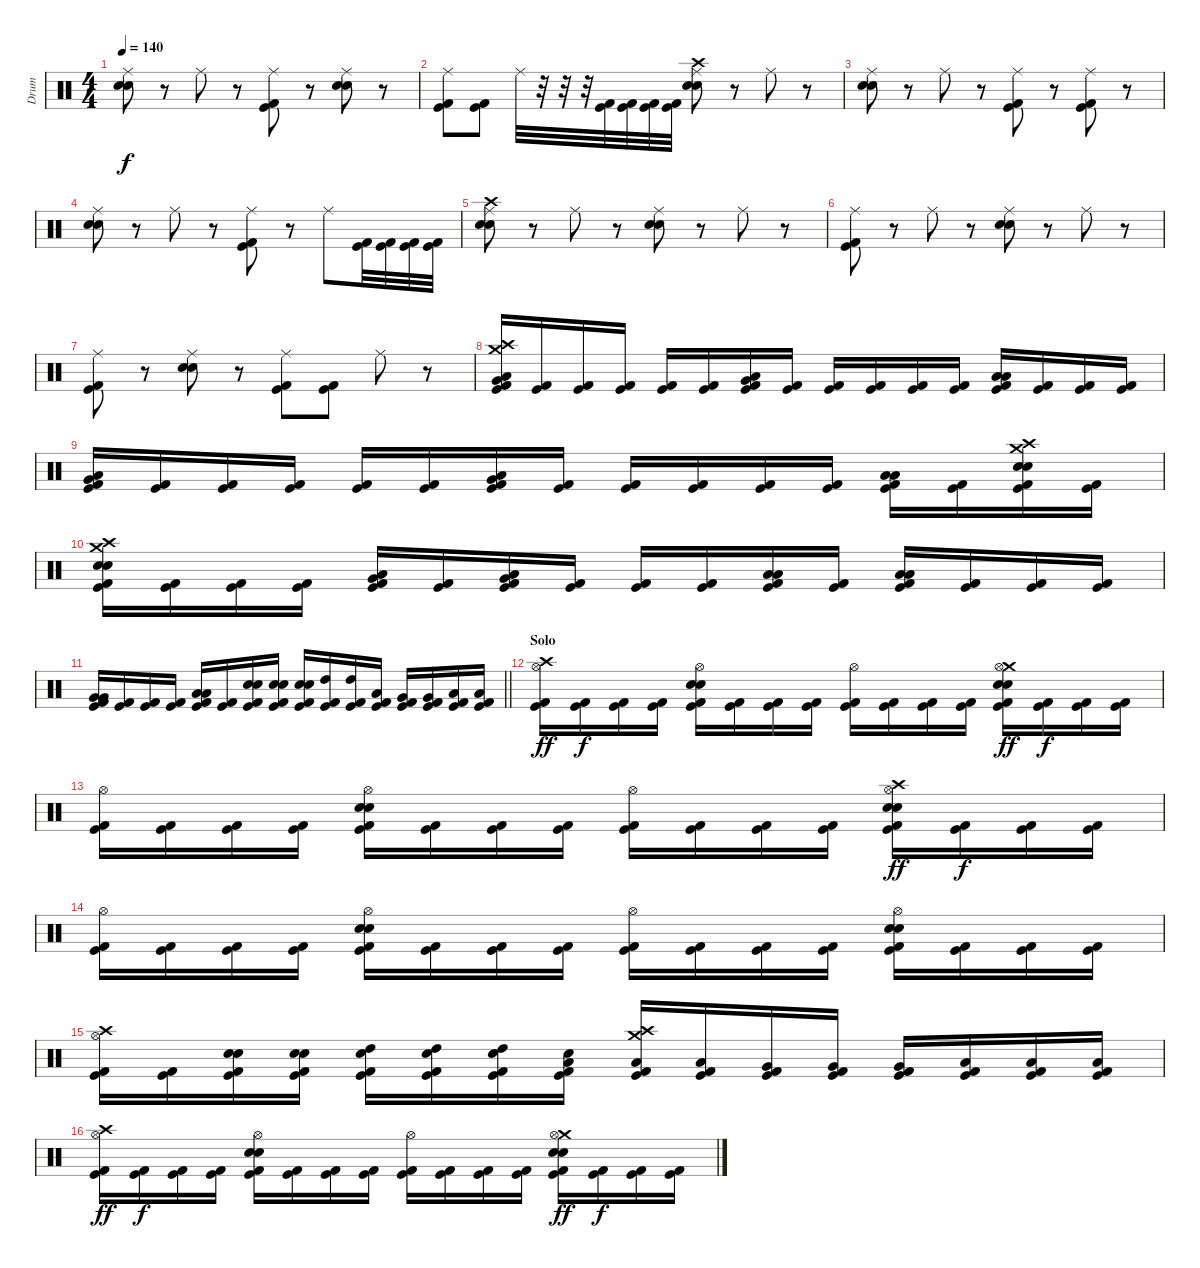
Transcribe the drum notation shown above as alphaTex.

\track ("Drum" "Drum") {instrument percussion}
\staff {score}
\articulation defaults
\ts (4 4)
\tempo 140
\clef neutral
\ks c
("Ride (middle)" "Snare (hit) 2" "Electric Snare (hit)").8{dy f} r.8 "Ride (middle)".8 r.8 ("Ride (middle)" "Kick (hit)" "Kick (hit) 2").8 r.8 ("Ride (middle)" "Snare (hit) 2" "Electric Snare (hit)").8 r.8 |
("Ride (middle)" "Kick (hit)" "Kick (hit) 2").8 ("Kick (hit)" "Kick (hit) 2").8 "Ride (middle)".32 r.32 r.32 r.32 ("Kick (hit)" "Kick (hit) 2").32 ("Kick (hit)" "Kick (hit) 2").32 ("Kick (hit)" "Kick (hit) 2").32 ("Kick (hit)" "Kick (hit) 2").32 ("Crash high (hit)" "Ride (middle)" "Electric Snare (hit)" "Snare (hit) 2").8 r.8 "Ride (middle)".8 r.8 |
("Ride (middle)" "Snare (hit) 2" "Electric Snare (hit)").8 r.8 "Ride (middle)".8 r.8 ("Ride (middle)" "Kick (hit)" "Kick (hit) 2").8 r.8 ("Ride (middle)" "Kick (hit)" "Kick (hit) 2").8 r.8 |
("Ride (middle)" "Snare (hit) 2" "Electric Snare (hit)").8 r.8 "Ride (middle)".8 r.8 ("Ride (middle)" "Kick (hit)" "Kick (hit) 2").8 r.8 "Ride (middle)".8 ("Kick (hit)" "Kick (hit) 2").32 ("Kick (hit)" "Kick (hit) 2").32 ("Kick (hit)" "Kick (hit) 2").32 ("Kick (hit)" "Kick (hit) 2").32 |
("Crash high (hit)" "Ride (middle)" "Snare (hit) 2" "Electric Snare (hit)").8 r.8 "Ride (middle)".8 r.8 ("Ride (middle)" "Electric Snare (hit)" "Snare (hit) 2").8 r.8 "Ride (middle)".8 r.8 |
("Ride (middle)" "Kick (hit)" "Kick (hit) 2").8 r.8 "Ride (middle)".8 r.8 ("Ride (middle)" "Snare (hit) 2" "Electric Snare (hit)").8 r.8 "Ride (middle)".8 r.8 |
("Ride (middle)" "Kick (hit)" "Kick (hit) 2").8 r.8 ("Ride (middle)" "Snare (hit) 2" "Electric Snare (hit)").8 r.8 ("Ride (middle)" "Kick (hit)" "Kick (hit) 2").8 ("Kick (hit)" "Kick (hit) 2").8 "Ride (middle)".8 r.8 |
("Crash high (hit)" "Crash medium (hit)" "Very Low Tom (hit)" "Low Floor Tom (hit)" "Kick (hit)" "Kick (hit) 2").16 ("Kick (hit)" "Kick (hit) 2").16 ("Kick (hit)" "Kick (hit) 2").16 ("Kick (hit)" "Kick (hit) 2").16 ("Kick (hit)" "Kick (hit) 2").16 ("Kick (hit)" "Kick (hit) 2").16 ("Very Low Tom (hit)" "Low Floor Tom (hit)" "Kick (hit)" "Kick (hit) 2").16 ("Kick (hit)" "Kick (hit) 2").16 ("Kick (hit)" "Kick (hit) 2").16 ("Kick (hit)" "Kick (hit) 2").16 ("Kick (hit)" "Kick (hit) 2").16 ("Kick (hit)" "Kick (hit) 2").16 ("Low Floor Tom (hit)" "Low Floor Tom (hit)" "Kick (hit)" "Kick (hit) 2").16 ("Kick (hit)" "Kick (hit) 2").16 ("Kick (hit)" "Kick (hit) 2").16 ("Kick (hit)" "Kick (hit) 2").16 |
("Very Low Tom (hit)" "Low Floor Tom (hit)" "Kick (hit)" "Kick (hit) 2").16 ("Kick (hit)" "Kick (hit) 2").16 ("Kick (hit)" "Kick (hit) 2").16 ("Kick (hit)" "Kick (hit) 2").16 ("Kick (hit)" "Kick (hit) 2").16 ("Kick (hit)" "Kick (hit) 2").16 ("Very Low Tom (hit)" "Low Floor Tom (hit)" "Kick (hit)" "Kick (hit) 2").16 ("Kick (hit)" "Kick (hit) 2").16 ("Kick (hit)" "Kick (hit) 2").16 ("Kick (hit)" "Kick (hit) 2").16 ("Kick (hit)" "Kick (hit) 2").16 ("Kick (hit)" "Kick (hit) 2").16 ("Low Floor Tom (hit)" "Low Floor Tom (hit)" "Kick (hit)" "Kick (hit) 2").16 ("Kick (hit)" "Kick (hit) 2").16 ("Crash medium (hit)" "Crash high (hit)" "Electric Snare (hit)" "Snare (hit) 2" "Kick (hit)" "Kick (hit) 2").16 ("Kick (hit)" "Kick (hit) 2").16 |
("Crash high (hit)" "Crash medium (hit)" "Electric Snare (hit)" "Snare (hit) 2" "Kick (hit)" "Kick (hit) 2").16 ("Kick (hit)" "Kick (hit) 2").16 ("Kick (hit)" "Kick (hit) 2").16 ("Kick (hit)" "Kick (hit) 2").16 ("Very Low Tom (hit)" "Low Floor Tom (hit)" "Kick (hit)" "Kick (hit) 2").16 ("Kick (hit)" "Kick (hit) 2").16 ("Very Low Tom (hit)" "Low Floor Tom (hit)" "Kick (hit)" "Kick (hit) 2").16 ("Kick (hit)" "Kick (hit) 2").16 ("Kick (hit)" "Kick (hit) 2").16 ("Kick (hit)" "Kick (hit) 2").16 ("Low Floor Tom (hit)" "Low Floor Tom (hit)" "Kick (hit)" "Kick (hit) 2").16 ("Kick (hit)" "Kick (hit) 2").16 ("Low Floor Tom (hit)" "Low Floor Tom (hit)" "Kick (hit)" "Kick (hit) 2").16 ("Kick (hit)" "Kick (hit) 2").16 ("Kick (hit)" "Kick (hit) 2").16 ("Kick (hit)" "Kick (hit) 2").16 |
\barLineRight lightlight
("Very Low Tom (hit)" "Very Low Tom (hit)" "Kick (hit)" "Kick (hit) 2").16 ("Kick (hit)" "Kick (hit) 2").16 ("Kick (hit)" "Kick (hit) 2").16 ("Kick (hit)" "Kick (hit) 2").16 ("Low Floor Tom (hit)" "Low Floor Tom (hit)" "Kick (hit)" "Kick (hit) 2").16 ("Kick (hit)" "Kick (hit) 2").16 ("Snare (hit) 2" "Electric Snare (hit)" "Kick (hit)" "Kick (hit) 2").16 ("Snare (hit) 2" "Electric Snare (hit)" "Kick (hit)" "Kick (hit) 2").16 ("Snare (hit) 2" "Electric Snare (hit)" "Kick (hit)" "Kick (hit) 2").16 ("High Tom (hit)" "Kick (hit)" "Kick (hit) 2").16 ("High Tom (hit)" "Kick (hit)" "Kick (hit) 2").16 ("Low Tom (hit)" "Kick (hit)" "Kick (hit) 2").16 ("Very Low Tom (hit)" "Kick (hit)" "Kick (hit) 2").16 ("Very Low Tom (hit)" "Kick (hit)" "Kick (hit) 2").16 ("Low Floor Tom (hit)" "Kick (hit)" "Kick (hit) 2").16 ("Low Floor Tom (hit)" "Kick (hit)" "Kick (hit) 2").16 |
\section ("" "Solo")
("Crash high (hit)" "Hi-Hat (open)" "Kick (hit)" "Kick (hit) 2").16{dy ff} ("Kick (hit)" "Kick (hit) 2").16{dy f} ("Kick (hit)" "Kick (hit) 2").16 ("Kick (hit)" "Kick (hit) 2").16 ("Hi-Hat (open)" "Snare (hit) 2" "Electric Snare (hit)" "Kick (hit)" "Kick (hit) 2").16 ("Kick (hit)" "Kick (hit) 2").16 ("Kick (hit)" "Kick (hit) 2").16 ("Kick (hit)" "Kick (hit) 2").16 ("Hi-Hat (open)" "Kick (hit)" "Kick (hit) 2").16 ("Kick (hit)" "Kick (hit) 2").16 ("Kick (hit)" "Kick (hit) 2").16 ("Kick (hit)" "Kick (hit) 2").16 ("Crash medium (hit)" "Hi-Hat (open)" "Snare (hit) 2" "Electric Snare (hit)" "Kick (hit)" "Kick (hit) 2").16{dy ff} ("Kick (hit)" "Kick (hit) 2").16{dy f} ("Kick (hit)" "Kick (hit) 2").16 ("Kick (hit)" "Kick (hit) 2").16 |
("Hi-Hat (open)" "Kick (hit)" "Kick (hit) 2").16 ("Kick (hit)" "Kick (hit) 2").16 ("Kick (hit)" "Kick (hit) 2").16 ("Kick (hit)" "Kick (hit) 2").16 ("Hi-Hat (open)" "Snare (hit) 2" "Electric Snare (hit)" "Kick (hit)" "Kick (hit) 2").16 ("Kick (hit)" "Kick (hit) 2").16 ("Kick (hit)" "Kick (hit) 2").16 ("Kick (hit)" "Kick (hit) 2").16 ("Hi-Hat (open)" "Kick (hit)" "Kick (hit) 2").16 ("Kick (hit)" "Kick (hit) 2").16 ("Kick (hit)" "Kick (hit) 2").16 ("Kick (hit)" "Kick (hit) 2").16 ("Crash high (hit)" "Hi-Hat (open)" "Snare (hit) 2" "Electric Snare (hit)" "Kick (hit)" "Kick (hit) 2").16{dy ff} ("Kick (hit)" "Kick (hit) 2").16{dy f} ("Kick (hit)" "Kick (hit) 2").16 ("Kick (hit)" "Kick (hit) 2").16 |
("Hi-Hat (open)" "Kick (hit)" "Kick (hit) 2").16 ("Kick (hit)" "Kick (hit) 2").16 ("Kick (hit)" "Kick (hit) 2").16 ("Kick (hit)" "Kick (hit) 2").16 ("Hi-Hat (open)" "Snare (hit) 2" "Electric Snare (hit)" "Kick (hit)" "Kick (hit) 2").16 ("Kick (hit)" "Kick (hit) 2").16 ("Kick (hit)" "Kick (hit) 2").16 ("Kick (hit)" "Kick (hit) 2").16 ("Hi-Hat (open)" "Kick (hit)" "Kick (hit) 2").16 ("Kick (hit)" "Kick (hit) 2").16 ("Kick (hit)" "Kick (hit) 2").16 ("Kick (hit)" "Kick (hit) 2").16 ("Hi-Hat (open)" "Snare (hit) 2" "Electric Snare (hit)" "Kick (hit)" "Kick (hit) 2").16 ("Kick (hit)" "Kick (hit) 2").16 ("Kick (hit)" "Kick (hit) 2").16 ("Kick (hit)" "Kick (hit) 2").16 |
("Crash high (hit)" "Hi-Hat (open)" "Kick (hit)" "Kick (hit) 2").16 ("Kick (hit)" "Kick (hit) 2").16 ("Snare (hit) 2" "Electric Snare (hit)" "Kick (hit)" "Kick (hit) 2").16 ("Snare (hit) 2" "Electric Snare (hit)" "Kick (hit)" "Kick (hit) 2").16 ("High Tom (hit)" "Electric Snare (hit)" "Kick (hit)" "Kick (hit) 2").16 ("High Tom (hit)" "Electric Snare (hit)" "Kick (hit)" "Kick (hit) 2").16 ("High Tom (hit)" "Electric Snare (hit)" "Kick (hit)" "Kick (hit) 2").16 ("Low Tom (hit)" "Electric Snare (hit)" "Kick (hit)" "Kick (hit) 2").16 ("Crash high (hit)" "Crash medium (hit)" "Low Tom (hit)" "Kick (hit)" "Kick (hit) 2").16 ("Low Tom (hit)" "Kick (hit)" "Kick (hit) 2").16 ("Very Low Tom (hit)" "Kick (hit)" "Kick (hit) 2").16 ("Very Low Tom (hit)" "Kick (hit)" "Kick (hit) 2").16 ("Very Low Tom (hit)" "Kick (hit)" "Kick (hit) 2").16 ("Low Floor Tom (hit)" "Kick (hit)" "Kick (hit) 2").16 ("Low Floor Tom (hit)" "Kick (hit)" "Kick (hit) 2").16 ("Low Floor Tom (hit)" "Kick (hit)" "Kick (hit) 2").16 |
("Crash high (hit)" "Hi-Hat (open)" "Kick (hit)" "Kick (hit) 2").16{dy ff} ("Kick (hit)" "Kick (hit) 2").16{dy f} ("Kick (hit)" "Kick (hit) 2").16 ("Kick (hit)" "Kick (hit) 2").16 ("Hi-Hat (open)" "Snare (hit) 2" "Electric Snare (hit)" "Kick (hit)" "Kick (hit) 2").16 ("Kick (hit)" "Kick (hit) 2").16 ("Kick (hit)" "Kick (hit) 2").16 ("Kick (hit)" "Kick (hit) 2").16 ("Hi-Hat (open)" "Kick (hit)" "Kick (hit) 2").16 ("Kick (hit)" "Kick (hit) 2").16 ("Kick (hit)" "Kick (hit) 2").16 ("Kick (hit)" "Kick (hit) 2").16 ("Crash medium (hit)" "Hi-Hat (open)" "Snare (hit) 2" "Electric Snare (hit)" "Kick (hit)" "Kick (hit) 2").16{dy ff} ("Kick (hit)" "Kick (hit) 2").16{dy f} ("Kick (hit)" "Kick (hit) 2").16 ("Kick (hit)" "Kick (hit) 2").16
